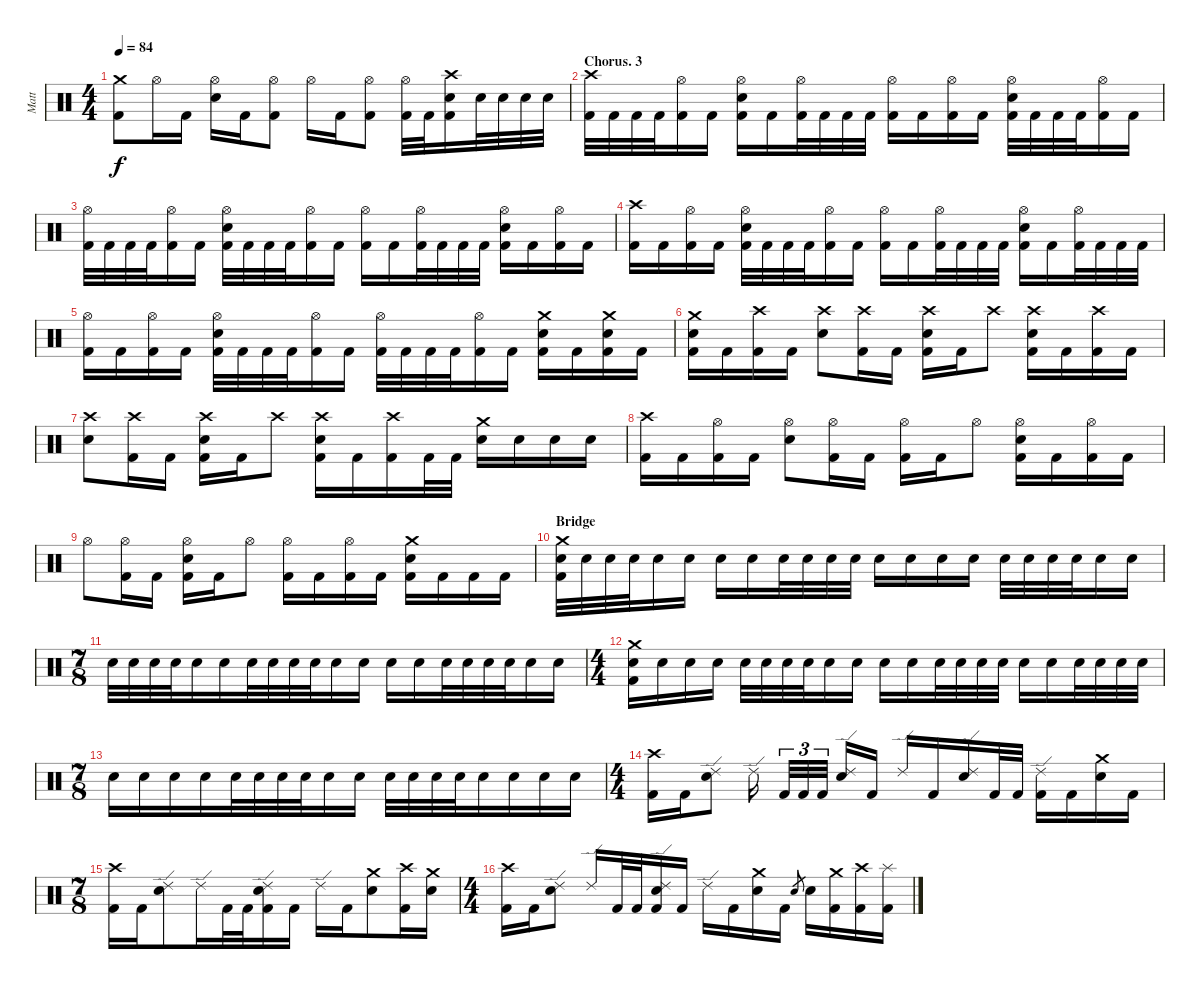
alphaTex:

\track ("Matt" "Matt") {instrument percussion}
\staff {score}
\articulation defaults
\ts (4 4)
\tempo 84
\clef neutral
\ks c
("Crash medium (hit)" "Kick (hit) 2").8{dy f} "Hi-Hat (open)".16 "Kick (hit) 2".16 ("Hi-Hat (open)" "Electric Snare (hit)").16 "Kick (hit) 2".16 ("Hi-Hat (open)" "Kick (hit) 2").8 "Hi-Hat (open)".16 "Kick (hit) 2".16 ("Hi-Hat (open)" "Kick (hit) 2").8 ("Hi-Hat (open)" "Kick (hit) 2").32 "Kick (hit) 2".32 ("Crash high (hit)" "Electric Snare (hit)" "Kick (hit) 2").16 "Electric Snare (hit)".32 "Electric Snare (hit)".32 "Electric Snare (hit)".32 "Electric Snare (hit)".32 |
\section ("" "Chorus. 3")
("Crash high (hit)" "Kick (hit) 2").32 "Kick (hit) 2".32 "Kick (hit) 2".32 "Kick (hit) 2".32 ("Hi-Hat (open)" "Kick (hit) 2").16 "Kick (hit) 2".16 ("Hi-Hat (open)" "Electric Snare (hit)" "Kick (hit) 2").16 "Kick (hit) 2".16 ("Hi-Hat (open)" "Kick (hit) 2").32 "Kick (hit) 2".32 "Kick (hit) 2".32 "Kick (hit) 2".32 ("Hi-Hat (open)" "Kick (hit) 2").16 "Kick (hit) 2".16 ("Hi-Hat (open)" "Kick (hit) 2").16 "Kick (hit) 2".16 ("Hi-Hat (open)" "Electric Snare (hit)" "Kick (hit) 2").32 "Kick (hit) 2".32 "Kick (hit) 2".32 "Kick (hit) 2".32 ("Hi-Hat (open)" "Kick (hit) 2").16 "Kick (hit) 2".16 |
("Hi-Hat (open)" "Kick (hit) 2").32 "Kick (hit) 2".32 "Kick (hit) 2".32 "Kick (hit) 2".32 ("Hi-Hat (open)" "Kick (hit) 2").16 "Kick (hit) 2".16 ("Hi-Hat (open)" "Electric Snare (hit)" "Kick (hit) 2").32 "Kick (hit) 2".32 "Kick (hit) 2".32 "Kick (hit) 2".32 ("Hi-Hat (open)" "Kick (hit) 2").16 "Kick (hit) 2".16 ("Hi-Hat (open)" "Kick (hit) 2").16 "Kick (hit) 2".16 ("Hi-Hat (open)" "Kick (hit) 2").32 "Kick (hit) 2".32 "Kick (hit) 2".32 "Kick (hit) 2".32 ("Hi-Hat (open)" "Electric Snare (hit)" "Kick (hit) 2").16 "Kick (hit) 2".16 ("Hi-Hat (open)" "Kick (hit) 2").16 "Kick (hit) 2".16 |
("Crash high (hit)" "Kick (hit) 2").16 "Kick (hit) 2".16 ("Hi-Hat (open)" "Kick (hit) 2").16 "Kick (hit) 2".16 ("Hi-Hat (open)" "Electric Snare (hit)" "Kick (hit) 2").32 "Kick (hit) 2".32 "Kick (hit) 2".32 "Kick (hit) 2".32 ("Hi-Hat (open)" "Kick (hit) 2").16 "Kick (hit) 2".16 ("Hi-Hat (open)" "Kick (hit) 2").16 "Kick (hit) 2".16 ("Hi-Hat (open)" "Kick (hit) 2").32 "Kick (hit) 2".32 "Kick (hit) 2".32 "Kick (hit) 2".32 ("Hi-Hat (open)" "Electric Snare (hit)" "Kick (hit) 2").16 "Kick (hit) 2".16 ("Hi-Hat (open)" "Kick (hit) 2").32 "Kick (hit) 2".32 "Kick (hit) 2".32 "Kick (hit) 2".32 |
("Hi-Hat (open)" "Kick (hit) 2").16 "Kick (hit) 2".16 ("Hi-Hat (open)" "Kick (hit) 2").16 "Kick (hit) 2".16 ("Hi-Hat (open)" "Electric Snare (hit)" "Kick (hit) 2").32 "Kick (hit) 2".32 "Kick (hit) 2".32 "Kick (hit) 2".32 ("Hi-Hat (open)" "Kick (hit) 2").16 "Kick (hit) 2".16 ("Hi-Hat (open)" "Kick (hit) 2").32 "Kick (hit) 2".32 "Kick (hit) 2".32 "Kick (hit) 2".32 ("Hi-Hat (open)" "Kick (hit) 2").16 "Kick (hit) 2".16 ("Crash medium (hit)" "Electric Snare (hit)" "Kick (hit) 2").16 "Kick (hit) 2".16 ("Crash medium (hit)" "Electric Snare (hit)" "Kick (hit) 2").16 "Kick (hit) 2".16 |
("Crash medium (hit)" "Electric Snare (hit)" "Kick (hit) 2").16 "Kick (hit) 2".16 ("Crash high (hit)" "Kick (hit) 2").16 "Kick (hit) 2".16 ("Crash high (hit)" "Electric Snare (hit)").8 ("Crash high (hit)" "Kick (hit) 2").16 "Kick (hit) 2".16 ("Crash high (hit)" "Electric Snare (hit)" "Kick (hit) 2").16 "Kick (hit) 2".16 "Crash high (hit)".8 ("Crash high (hit)" "Electric Snare (hit)" "Kick (hit) 2").16 "Kick (hit) 2".16 ("Crash high (hit)" "Kick (hit) 2").16 "Kick (hit) 2".16 |
("Crash high (hit)" "Electric Snare (hit)").8 ("Crash high (hit)" "Kick (hit) 2").16 "Kick (hit) 2".16 ("Crash high (hit)" "Electric Snare (hit)" "Kick (hit) 2").16 "Kick (hit) 2".16 "Crash high (hit)".8 ("Crash high (hit)" "Electric Snare (hit)" "Kick (hit) 2").16 "Kick (hit) 2".16 ("Crash high (hit)" "Kick (hit) 2").16 "Kick (hit) 2".32 "Kick (hit) 2".32 ("Crash medium (hit)" "Electric Snare (hit)").16 "Electric Snare (hit)".16 "Electric Snare (hit)".16 "Electric Snare (hit)".16 |
("Crash high (hit)" "Kick (hit) 2").16 "Kick (hit) 2".16 ("Hi-Hat (open)" "Kick (hit) 2").16 "Kick (hit) 2".16 ("Hi-Hat (open)" "Electric Snare (hit)").8 ("Hi-Hat (open)" "Kick (hit) 2").16 "Kick (hit) 2".16 ("Hi-Hat (open)" "Kick (hit) 2").16 "Kick (hit) 2".16 "Hi-Hat (open)".8 ("Hi-Hat (open)" "Electric Snare (hit)" "Kick (hit) 2").16 "Kick (hit) 2".16 ("Hi-Hat (open)" "Kick (hit) 2").16 "Kick (hit) 2".16 |
"Hi-Hat (open)".8 ("Hi-Hat (open)" "Kick (hit) 2").16 "Kick (hit) 2".16 ("Hi-Hat (open)" "Electric Snare (hit)" "Kick (hit) 2").16 "Kick (hit) 2".16 "Hi-Hat (open)".8 ("Hi-Hat (open)" "Kick (hit) 2").16 "Kick (hit) 2".16 ("Hi-Hat (open)" "Kick (hit) 2").16 "Kick (hit) 2".16 ("Crash medium (hit)" "Electric Snare (hit)" "Kick (hit) 2").16 "Kick (hit) 2".16 "Kick (hit) 2".16 "Kick (hit) 2".16 |
\section ("" "Bridge")
("Crash medium (hit)" "Electric Snare (hit)" "Kick (hit) 2").32 "Electric Snare (hit)".32 "Electric Snare (hit)".32 "Electric Snare (hit)".32 "Electric Snare (hit)".16 "Electric Snare (hit)".16 "Electric Snare (hit)".16 "Electric Snare (hit)".16 "Electric Snare (hit)".32 "Electric Snare (hit)".32 "Electric Snare (hit)".32 "Electric Snare (hit)".32 "Electric Snare (hit)".16 "Electric Snare (hit)".16 "Electric Snare (hit)".16 "Electric Snare (hit)".16 "Electric Snare (hit)".32 "Electric Snare (hit)".32 "Electric Snare (hit)".32 "Electric Snare (hit)".32 "Electric Snare (hit)".16 "Electric Snare (hit)".16 |
\ts (7 8)
"Electric Snare (hit)".32 "Electric Snare (hit)".32 "Electric Snare (hit)".32 "Electric Snare (hit)".32 "Electric Snare (hit)".16 "Electric Snare (hit)".16 "Electric Snare (hit)".32 "Electric Snare (hit)".32 "Electric Snare (hit)".32 "Electric Snare (hit)".32 "Electric Snare (hit)".16 "Electric Snare (hit)".16 "Electric Snare (hit)".16 "Electric Snare (hit)".16 "Electric Snare (hit)".32 "Electric Snare (hit)".32 "Electric Snare (hit)".32 "Electric Snare (hit)".32 "Electric Snare (hit)".16 "Electric Snare (hit)".16 |
\ts (4 4)
("Crash medium (hit)" "Electric Snare (hit)" "Kick (hit) 2").16 "Electric Snare (hit)".16 "Electric Snare (hit)".16 "Electric Snare (hit)".16 "Electric Snare (hit)".32 "Electric Snare (hit)".32 "Electric Snare (hit)".32 "Electric Snare (hit)".32 "Electric Snare (hit)".16 "Electric Snare (hit)".16 "Electric Snare (hit)".16 "Electric Snare (hit)".16 "Electric Snare (hit)".32 "Electric Snare (hit)".32 "Electric Snare (hit)".32 "Electric Snare (hit)".32 "Electric Snare (hit)".16 "Electric Snare (hit)".16 "Electric Snare (hit)".32 "Electric Snare (hit)".32 "Electric Snare (hit)".32 "Electric Snare (hit)".32 |
\ts (7 8)
"Electric Snare (hit)".16 "Electric Snare (hit)".16 "Electric Snare (hit)".16 "Electric Snare (hit)".16 "Electric Snare (hit)".32 "Electric Snare (hit)".32 "Electric Snare (hit)".32 "Electric Snare (hit)".32 "Electric Snare (hit)".16 "Electric Snare (hit)".16 "Electric Snare (hit)".32 "Electric Snare (hit)".32 "Electric Snare (hit)".32 "Electric Snare (hit)".32 "Electric Snare (hit)".16 "Electric Snare (hit)".16 "Electric Snare (hit)".16 "Electric Snare (hit)".16 |
\ts (4 4)
("Crash high (hit)" "Kick (hit) 2").16 "Kick (hit) 2".16 ("Ride (edge) 2" "Electric Snare (hit)").8 "Ride (edge) 2".16 "Kick (hit) 2".32{tu (3 2)} "Kick (hit) 2".32{tu (3 2)} "Kick (hit) 2".32{tu (3 2)} ("Ride (edge) 2" "Electric Snare (hit)").16 "Kick (hit) 2".16 "Ride (edge) 2".16 "Kick (hit) 2".16 ("Ride (edge) 2" "Electric Snare (hit)").16 "Kick (hit) 2".32 "Kick (hit) 2".32 ("Ride (edge) 2" "Kick (hit) 2").16 "Kick (hit) 2".16 ("Crash medium (hit)" "Electric Snare (hit)").16 "Kick (hit) 2".16 |
\ts (7 8)
("Crash high (hit)" "Kick (hit) 2").16 "Kick (hit) 2".16 ("Ride (edge) 2" "Electric Snare (hit)").8 "Ride (edge) 2".16 "Kick (hit) 2".32 "Kick (hit) 2".32 ("Ride (edge) 2" "Electric Snare (hit)" "Kick (hit) 2").16 "Kick (hit) 2".16 "Ride (edge) 2".16 "Kick (hit) 2".16 ("Crash medium (hit)" "Electric Snare (hit)").8 ("Crash high (hit)" "Kick (hit) 2").16 ("Crash medium (hit)" "Electric Snare (hit)").16 |
\ts (4 4)
("Crash high (hit)" "Kick (hit) 2").16 "Kick (hit) 2".16 ("Ride (edge) 2" "Electric Snare (hit)").8 "Ride (edge) 2".16 "Kick (hit) 2".32 "Kick (hit) 2".32 ("Ride (edge) 2" "Electric Snare (hit)" "Kick (hit) 2").16 "Kick (hit) 2".16 "Ride (edge) 2".16 "Kick (hit) 2".16 ("Crash medium (hit)" "Electric Snare (hit)").16 "Kick (hit) 2".16 "Electric Snare (hit)".8{gr} "Electric Snare (hit)".16 ("Crash medium (hit)" "Kick (hit) 2").16 ("Crash high (hit)" "Kick (hit) 2").16 ("Splash (hit)" "Kick (hit) 2").16
